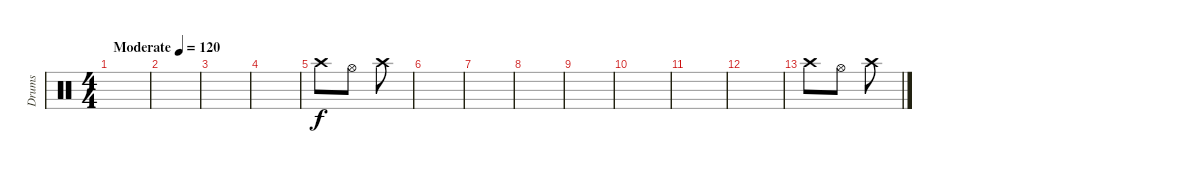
\track ("Drums" "Drums") {instrument percussion}
\staff {score}
\articulation defaults
\ts (4 4)
\tempo (120 "Moderate")
\clef neutral
\ks c
|
|
|
|
"Crash high (hit)".8 "Hi-Hat (open)".8 "Crash high (hit)".8 |
|
|
|
|
|
|
|
"Crash high (hit)".8 "Hi-Hat (open)".8 "Crash high (hit)".8
